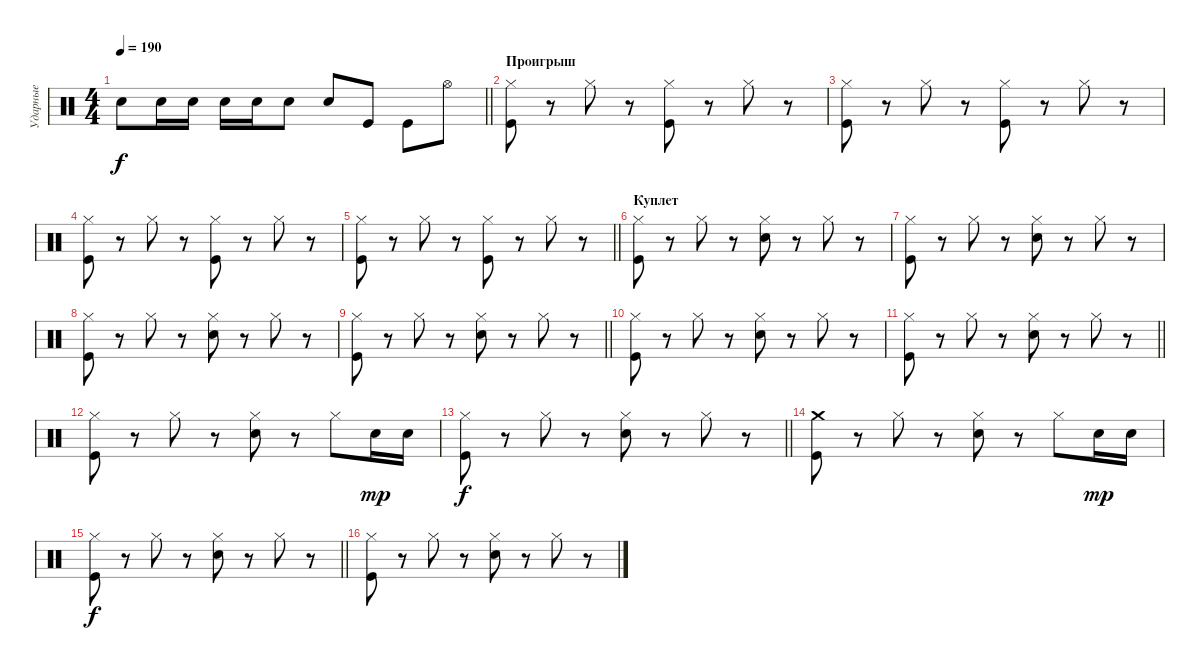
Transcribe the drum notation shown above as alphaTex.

\track ("Ударные" "Ударные") {instrument percussion}
\staff {score}
\articulation defaults
\ts (4 4)
\tempo 190
\clef neutral
\barLineRight lightlight
\ks c "Electric Snare (hit)".8{dy f} "Electric Snare (hit)".16 "Electric Snare (hit)".16 "Electric Snare (hit)".16 "Electric Snare (hit)".16 "Electric Snare (hit)".8 "Electric Snare (hit)".8 "Kick (hit)".8 "Kick (hit)".8 "Hi-Hat (open)".8
|
\section ("" "Проигрыш")
("Hi-Hat (closed)" "Kick (hit)").8 r.8 "Hi-Hat (closed)".8 r.8 ("Hi-Hat (closed)" "Kick (hit)").8 r.8 "Hi-Hat (closed)".8 r.8 |
("Hi-Hat (closed)" "Kick (hit)").8 r.8 "Hi-Hat (closed)".8 r.8 ("Hi-Hat (closed)" "Kick (hit)").8 r.8 "Hi-Hat (closed)".8 r.8 |
("Hi-Hat (closed)" "Kick (hit)").8 r.8 "Hi-Hat (closed)".8 r.8 ("Hi-Hat (closed)" "Kick (hit)").8 r.8 "Hi-Hat (closed)".8 r.8 |
\barLineRight lightlight
("Hi-Hat (closed)" "Kick (hit)").8 r.8 "Hi-Hat (closed)".8 r.8 ("Hi-Hat (closed)" "Kick (hit)").8 r.8 "Hi-Hat (closed)".8 r.8 |
\section ("" "Куплет")
("Hi-Hat (closed)" "Kick (hit)").8 r.8 "Hi-Hat (closed)".8 r.8 ("Hi-Hat (closed)" "Electric Snare (hit)").8 r.8 "Hi-Hat (closed)".8 r.8 |
("Hi-Hat (closed)" "Kick (hit)").8 r.8 "Hi-Hat (closed)".8 r.8 ("Hi-Hat (closed)" "Electric Snare (hit)").8 r.8 "Hi-Hat (closed)".8 r.8 |
("Hi-Hat (closed)" "Kick (hit)").8 r.8 "Hi-Hat (closed)".8 r.8 ("Hi-Hat (closed)" "Electric Snare (hit)").8 r.8 "Hi-Hat (closed)".8 r.8 |
\barLineRight lightlight
("Hi-Hat (closed)" "Kick (hit)").8 r.8 "Hi-Hat (closed)".8 r.8 ("Hi-Hat (closed)" "Electric Snare (hit)").8 r.8 "Hi-Hat (closed)".8 r.8 |
("Hi-Hat (closed)" "Kick (hit)").8 r.8 "Hi-Hat (closed)".8 r.8 ("Hi-Hat (closed)" "Electric Snare (hit)").8 r.8 "Hi-Hat (closed)".8 r.8 |
\barLineRight lightlight
("Hi-Hat (closed)" "Kick (hit)").8 r.8 "Hi-Hat (closed)".8 r.8 ("Hi-Hat (closed)" "Electric Snare (hit)").8 r.8 "Hi-Hat (closed)".8 r.8 |
("Hi-Hat (closed)" "Kick (hit)").8 r.8 "Hi-Hat (closed)".8 r.8 ("Hi-Hat (closed)" "Electric Snare (hit)").8 r.8 "Hi-Hat (closed)".8 "Electric Snare (hit)".16{dy mp} "Electric Snare (hit)".16 |
\barLineRight lightlight
("Hi-Hat (closed)" "Kick (hit)").8{dy f} r.8 "Hi-Hat (closed)".8 r.8 ("Hi-Hat (closed)" "Electric Snare (hit)").8 r.8 "Hi-Hat (closed)".8 r.8 |
\section ("" " ")
("Crash medium (hit)" "Kick (hit)").8 r.8 "Hi-Hat (closed)".8 r.8 ("Hi-Hat (closed)" "Electric Snare (hit)").8 r.8 "Hi-Hat (closed)".8 "Electric Snare (hit)".16{dy mp} "Electric Snare (hit)".16 |
\barLineRight lightlight
("Hi-Hat (closed)" "Kick (hit)").8{dy f} r.8 "Hi-Hat (closed)".8 r.8 ("Hi-Hat (closed)" "Electric Snare (hit)").8 r.8 "Hi-Hat (closed)".8 r.8 |
("Hi-Hat (closed)" "Kick (hit)").8 r.8 "Hi-Hat (closed)".8 r.8 ("Hi-Hat (closed)" "Electric Snare (hit)").8 r.8 "Hi-Hat (closed)".8 r.8
